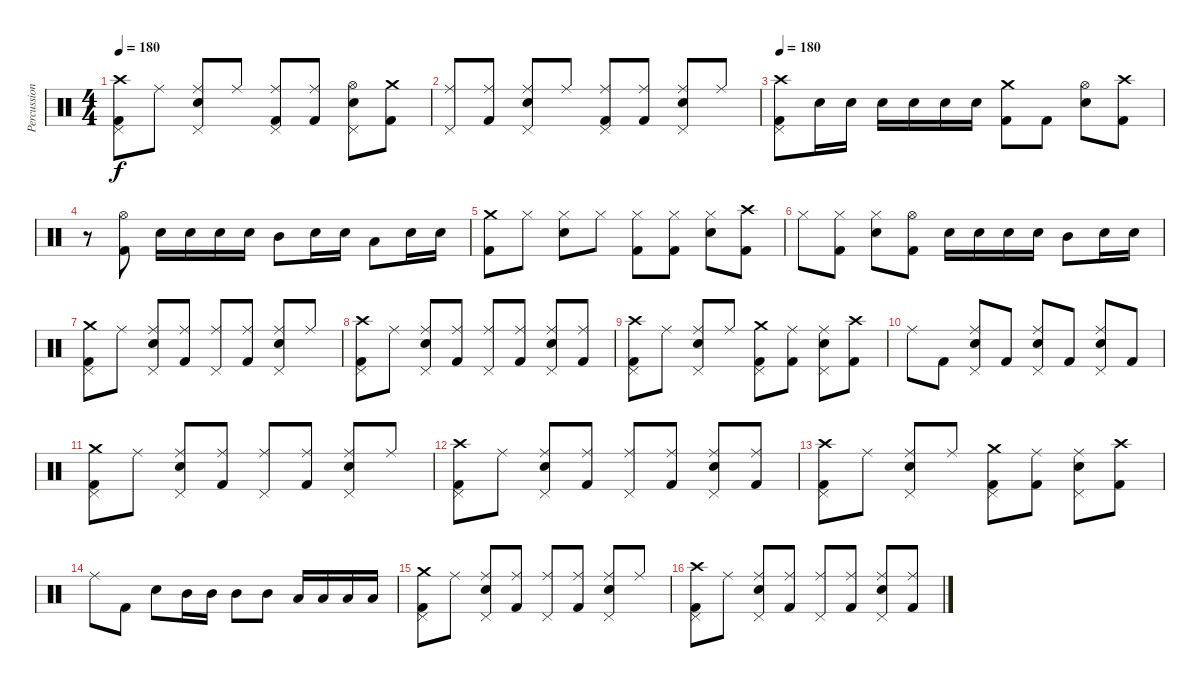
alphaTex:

\track ("Percussion" "Percussion") {instrument percussion}
\staff {score}
\articulation defaults
\ts (4 4)
\tempo 180
\clef neutral
\ks c
("Crash high (hit)" "Pedal Hi-Hat (hit)" "Kick (hit) 2").8{dy f} "Ride (middle)".8 ("Ride (middle)" "Pedal Hi-Hat (hit)" "Electric Snare (hit)").8 "Ride (middle)".8 ("Ride (middle)" "Pedal Hi-Hat (hit)" "Kick (hit) 2").8 ("Ride (middle)" "Kick (hit) 2").8 ("Hi-Hat (open)" "Pedal Hi-Hat (hit)" "Electric Snare (hit)").8 ("Crash medium (hit)" "Kick (hit) 2").8 |
("Ride (middle)" "Pedal Hi-Hat (hit)").8 ("Ride (middle)" "Kick (hit) 2").8 ("Ride (middle)" "Pedal Hi-Hat (hit)" "Electric Snare (hit)").8 "Ride (middle)".8 ("Ride (middle)" "Pedal Hi-Hat (hit)" "Kick (hit) 2").8 ("Ride (middle)" "Kick (hit) 2").8 ("Ride (middle)" "Pedal Hi-Hat (hit)" "Electric Snare (hit)").8 "Ride (middle)".8 |
\tempo 180
("Crash high (hit)" "Pedal Hi-Hat (hit)" "Kick (hit) 2").8 "Electric Snare (hit)".16 "Electric Snare (hit)".16 "Electric Snare (hit)".16 "Electric Snare (hit)".16 "Electric Snare (hit)".16 "Electric Snare (hit)".16 ("Crash medium (hit)" "Kick (hit) 2").8 "Kick (hit) 2".8 ("Hi-Hat (open)" "Electric Snare (hit)").8 ("Crash high (hit)" "Kick (hit) 2").8 |
r.8 ("Hi-Hat (open)" "Kick (hit) 2").8 "Electric Snare (hit)".16 "Electric Snare (hit)".16 "Electric Snare (hit)".16 "Electric Snare (hit)".16 "Mid Tom (hit)".8 "Electric Snare (hit)".16 "Electric Snare (hit)".16 "Low Tom (hit)".8 "Electric Snare (hit)".16 "Electric Snare (hit)".16 |
("Crash medium (hit)" "Kick (hit) 2").8 "Hi-Hat (closed)".8 ("Hi-Hat (closed)" "Electric Snare (hit)").8 "Hi-Hat (closed)".8 ("Hi-Hat (closed)" "Kick (hit) 2").8 ("Hi-Hat (closed)" "Kick (hit) 2").8 ("Hi-Hat (closed)" "Electric Snare (hit)").8 ("Crash high (hit)" "Kick (hit) 2").8 |
"Hi-Hat (closed)".8 ("Hi-Hat (closed)" "Kick (hit) 2").8 ("Hi-Hat (closed)" "Electric Snare (hit)").8 ("Hi-Hat (open)" "Kick (hit) 2").8 "Electric Snare (hit)".16 "Electric Snare (hit)".16 "Electric Snare (hit)".16 "Electric Snare (hit)".16 "Mid Tom (hit)".8 "Electric Snare (hit)".16 "Electric Snare (hit)".16 |
("Crash medium (hit)" "Pedal Hi-Hat (hit)" "Kick (hit) 2").8 "Ride (middle)".8 ("Ride (middle)" "Pedal Hi-Hat (hit)" "Electric Snare (hit)").8 ("Ride (middle)" "Kick (hit) 2").8 ("Ride (middle)" "Pedal Hi-Hat (hit)").8 ("Ride (middle)" "Kick (hit) 2").8 ("Ride (middle)" "Pedal Hi-Hat (hit)" "Electric Snare (hit)").8 "Ride (middle)".8 |
("Crash high (hit)" "Pedal Hi-Hat (hit)" "Kick (hit) 2").8 "Ride (middle)".8 ("Ride (middle)" "Pedal Hi-Hat (hit)" "Electric Snare (hit)").8 ("Ride (middle)" "Kick (hit) 2").8 ("Ride (middle)" "Pedal Hi-Hat (hit)").8 ("Ride (middle)" "Kick (hit) 2").8 ("Ride (middle)" "Pedal Hi-Hat (hit)" "Electric Snare (hit)").8 ("Ride (middle)" "Kick (hit) 2").8 |
("Crash high (hit)" "Pedal Hi-Hat (hit)" "Kick (hit) 2").8 "Ride (middle)".8 ("Ride (middle)" "Pedal Hi-Hat (hit)" "Electric Snare (hit)").8 "Ride (middle)".8 ("Crash medium (hit)" "Pedal Hi-Hat (hit)" "Kick (hit) 2").8 ("Ride (middle)" "Kick (hit) 2").8 ("Ride (middle)" "Pedal Hi-Hat (hit)" "Electric Snare (hit)").8 ("Crash high (hit)" "Kick (hit) 2").8 |
"Ride (middle)".8 "Kick (hit) 2".8 ("Ride (middle)" "Pedal Hi-Hat (hit)" "Electric Snare (hit)").8 "Kick (hit) 2".8 ("Ride (middle)" "Pedal Hi-Hat (hit)" "Electric Snare (hit)").8 "Kick (hit) 2".8 ("Ride (middle)" "Pedal Hi-Hat (hit)" "Electric Snare (hit)").8 "Kick (hit) 2".8 |
("Crash medium (hit)" "Pedal Hi-Hat (hit)" "Kick (hit) 2").8 "Ride (middle)".8 ("Ride (middle)" "Pedal Hi-Hat (hit)" "Electric Snare (hit)").8 ("Ride (middle)" "Kick (hit) 2").8 ("Ride (middle)" "Pedal Hi-Hat (hit)").8 ("Ride (middle)" "Kick (hit) 2").8 ("Ride (middle)" "Pedal Hi-Hat (hit)" "Electric Snare (hit)").8 "Ride (middle)".8 |
("Crash high (hit)" "Pedal Hi-Hat (hit)" "Kick (hit) 2").8 "Ride (middle)".8 ("Ride (middle)" "Pedal Hi-Hat (hit)" "Electric Snare (hit)").8 ("Ride (middle)" "Kick (hit) 2").8 ("Ride (middle)" "Pedal Hi-Hat (hit)").8 ("Ride (middle)" "Kick (hit) 2").8 ("Ride (middle)" "Pedal Hi-Hat (hit)" "Electric Snare (hit)").8 ("Ride (middle)" "Kick (hit) 2").8 |
("Crash high (hit)" "Pedal Hi-Hat (hit)" "Kick (hit) 2").8 "Ride (middle)".8 ("Ride (middle)" "Pedal Hi-Hat (hit)" "Electric Snare (hit)").8 "Ride (middle)".8 ("Crash medium (hit)" "Pedal Hi-Hat (hit)" "Kick (hit) 2").8 ("Ride (middle)" "Kick (hit) 2").8 ("Ride (middle)" "Pedal Hi-Hat (hit)" "Electric Snare (hit)").8 ("Crash high (hit)" "Kick (hit) 2").8 |
"Ride (middle)".8 "Kick (hit) 2".8 "Electric Snare (hit)".8 "Mid Tom (hit)".16 "Mid Tom (hit)".16 "Mid Tom (hit)".8 "Mid Tom (hit)".8 "Low Tom (hit)".16 "Low Tom (hit)".16 "Low Tom (hit)".16 "Low Tom (hit)".16 |
("Crash medium (hit)" "Pedal Hi-Hat (hit)" "Kick (hit) 2").8 "Ride (middle)".8 ("Ride (middle)" "Pedal Hi-Hat (hit)" "Electric Snare (hit)").8 ("Ride (middle)" "Kick (hit) 2").8 ("Ride (middle)" "Pedal Hi-Hat (hit)").8 ("Ride (middle)" "Kick (hit) 2").8 ("Ride (middle)" "Pedal Hi-Hat (hit)" "Electric Snare (hit)").8 "Ride (middle)".8 |
("Crash high (hit)" "Pedal Hi-Hat (hit)" "Kick (hit) 2").8 "Ride (middle)".8 ("Ride (middle)" "Pedal Hi-Hat (hit)" "Electric Snare (hit)").8 ("Ride (middle)" "Kick (hit) 2").8 ("Ride (middle)" "Pedal Hi-Hat (hit)").8 ("Ride (middle)" "Kick (hit) 2").8 ("Ride (middle)" "Pedal Hi-Hat (hit)" "Electric Snare (hit)").8 ("Ride (middle)" "Kick (hit) 2").8
